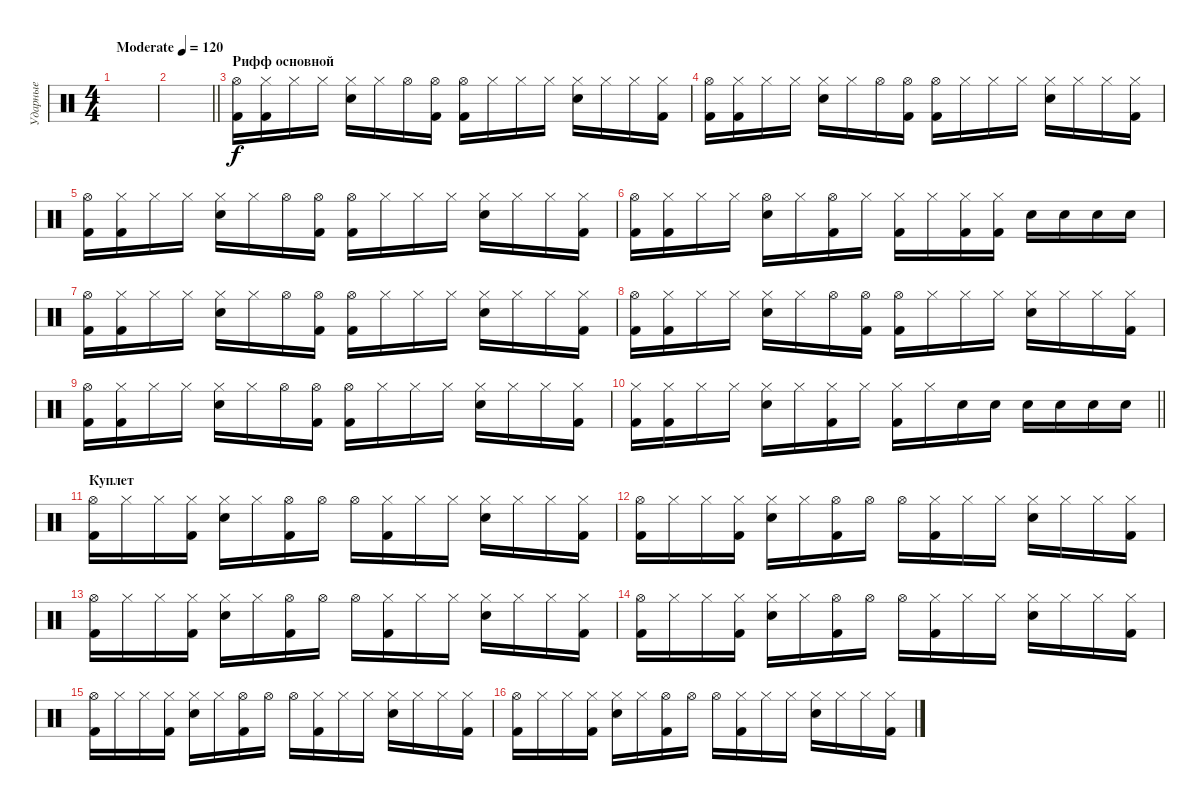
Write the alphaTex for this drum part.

\track ("Ударные" "Ударные") {instrument percussion}
\staff {score}
\articulation defaults
\ts (4 4)
\tempo (120 "Moderate")
\clef neutral
\ks c
|
\barLineRight lightlight
|
\section ("" "Рифф основной")
("Kick (hit) 2" "Hi-Hat (open)").16 ("Kick (hit) 2" "Hi-Hat (closed)").16 "Hi-Hat (closed)".16 "Hi-Hat (closed)".16 ("Electric Snare (hit)" "Hi-Hat (closed)").16 "Hi-Hat (closed)".16 "Hi-Hat (open)".16 ("Kick (hit) 2" "Hi-Hat (open)").16 ("Kick (hit) 2" "Hi-Hat (open)").16 "Hi-Hat (closed)".16 "Hi-Hat (closed)".16 "Hi-Hat (closed)".16 ("Electric Snare (hit)" "Hi-Hat (closed)").16 "Hi-Hat (closed)".16 "Hi-Hat (closed)".16 ("Kick (hit) 2" "Hi-Hat (closed)").16 |
("Kick (hit) 2" "Hi-Hat (open)").16 ("Kick (hit) 2" "Hi-Hat (closed)").16 "Hi-Hat (closed)".16 "Hi-Hat (closed)".16 ("Electric Snare (hit)" "Hi-Hat (closed)").16 "Hi-Hat (closed)".16 "Hi-Hat (open)".16 ("Kick (hit) 2" "Hi-Hat (open)").16 ("Kick (hit) 2" "Hi-Hat (open)").16 "Hi-Hat (closed)".16 "Hi-Hat (closed)".16 "Hi-Hat (closed)".16 ("Electric Snare (hit)" "Hi-Hat (closed)").16 "Hi-Hat (closed)".16 "Hi-Hat (closed)".16 ("Kick (hit) 2" "Hi-Hat (closed)").16 |
("Kick (hit) 2" "Hi-Hat (open)").16 ("Kick (hit) 2" "Hi-Hat (closed)").16 "Hi-Hat (closed)".16 "Hi-Hat (closed)".16 ("Electric Snare (hit)" "Hi-Hat (closed)").16 "Hi-Hat (closed)".16 "Hi-Hat (open)".16 ("Kick (hit) 2" "Hi-Hat (open)").16 ("Kick (hit) 2" "Hi-Hat (open)").16 "Hi-Hat (closed)".16 "Hi-Hat (closed)".16 "Hi-Hat (closed)".16 ("Electric Snare (hit)" "Hi-Hat (closed)").16 "Hi-Hat (closed)".16 "Hi-Hat (closed)".16 ("Kick (hit) 2" "Hi-Hat (closed)").16 |
("Kick (hit) 2" "Hi-Hat (open)").16 ("Kick (hit) 2" "Hi-Hat (closed)").16 "Hi-Hat (closed)".16 "Hi-Hat (closed)".16 ("Electric Snare (hit)" "Hi-Hat (open)").16 "Hi-Hat (closed)".16 ("Kick (hit) 2" "Hi-Hat (open)").16 "Hi-Hat (closed)".16 ("Kick (hit) 2" "Hi-Hat (closed)").16 "Hi-Hat (closed)".16 ("Kick (hit) 2" "Hi-Hat (closed)").16 ("Kick (hit) 2" "Hi-Hat (closed)").16 "Electric Snare (hit)".16 "Electric Snare (hit)".16 "Electric Snare (hit)".16 "Electric Snare (hit)".16 |
("Kick (hit) 2" "Hi-Hat (open)").16 ("Kick (hit) 2" "Hi-Hat (closed)").16 "Hi-Hat (closed)".16 "Hi-Hat (closed)".16 ("Electric Snare (hit)" "Hi-Hat (closed)").16 "Hi-Hat (closed)".16 "Hi-Hat (open)".16 ("Kick (hit) 2" "Hi-Hat (open)").16 ("Kick (hit) 2" "Hi-Hat (open)").16 "Hi-Hat (closed)".16 "Hi-Hat (closed)".16 "Hi-Hat (closed)".16 ("Electric Snare (hit)" "Hi-Hat (closed)").16 "Hi-Hat (closed)".16 "Hi-Hat (closed)".16 ("Kick (hit) 2" "Hi-Hat (closed)").16 |
("Kick (hit) 2" "Hi-Hat (open)").16 ("Kick (hit) 2" "Hi-Hat (closed)").16 "Hi-Hat (closed)".16 "Hi-Hat (closed)".16 ("Electric Snare (hit)" "Hi-Hat (closed)").16 "Hi-Hat (closed)".16 "Hi-Hat (open)".16 ("Kick (hit) 2" "Hi-Hat (open)").16 ("Kick (hit) 2" "Hi-Hat (open)").16 "Hi-Hat (closed)".16 "Hi-Hat (closed)".16 "Hi-Hat (closed)".16 ("Electric Snare (hit)" "Hi-Hat (closed)").16 "Hi-Hat (closed)".16 "Hi-Hat (closed)".16 ("Kick (hit) 2" "Hi-Hat (closed)").16 |
("Kick (hit) 2" "Hi-Hat (open)").16 ("Kick (hit) 2" "Hi-Hat (closed)").16 "Hi-Hat (closed)".16 "Hi-Hat (closed)".16 ("Electric Snare (hit)" "Hi-Hat (closed)").16 "Hi-Hat (closed)".16 "Hi-Hat (open)".16 ("Kick (hit) 2" "Hi-Hat (open)").16 ("Kick (hit) 2" "Hi-Hat (open)").16 "Hi-Hat (closed)".16 "Hi-Hat (closed)".16 "Hi-Hat (closed)".16 ("Electric Snare (hit)" "Hi-Hat (closed)").16 "Hi-Hat (closed)".16 "Hi-Hat (closed)".16 ("Kick (hit) 2" "Hi-Hat (closed)").16 |
\barLineRight lightlight
("Kick (hit) 2" "Hi-Hat (closed)").16 ("Kick (hit) 2" "Hi-Hat (closed)").16 "Hi-Hat (closed)".16 "Hi-Hat (closed)".16 ("Electric Snare (hit)" "Hi-Hat (closed)").16 "Hi-Hat (closed)".16 ("Kick (hit) 2" "Hi-Hat (closed)").16 "Hi-Hat (closed)".16 ("Kick (hit) 2" "Hi-Hat (closed)").16 "Hi-Hat (closed)".16 "Electric Snare (hit)".16 "Electric Snare (hit)".16 "Electric Snare (hit)".16 "Electric Snare (hit)".16 "Electric Snare (hit)".16 "Electric Snare (hit)".16 |
\section ("" "Куплет")
("Kick (hit) 2" "Hi-Hat (open)").16 "Hi-Hat (closed)".16 "Hi-Hat (closed)".16 ("Kick (hit) 2" "Hi-Hat (closed)").16 ("Electric Snare (hit)" "Hi-Hat (closed)").16 "Hi-Hat (closed)".16 ("Kick (hit) 2" "Hi-Hat (open)").16 "Hi-Hat (open)".16 "Hi-Hat (open)".16 ("Kick (hit) 2" "Hi-Hat (closed)").16 "Hi-Hat (closed)".16 "Hi-Hat (closed)".16 ("Electric Snare (hit)" "Hi-Hat (closed)").16 "Hi-Hat (closed)".16 "Hi-Hat (closed)".16 ("Kick (hit) 2" "Hi-Hat (closed)").16 |
("Kick (hit) 2" "Hi-Hat (open)").16 "Hi-Hat (closed)".16 "Hi-Hat (closed)".16 ("Kick (hit) 2" "Hi-Hat (closed)").16 ("Electric Snare (hit)" "Hi-Hat (closed)").16 "Hi-Hat (closed)".16 ("Kick (hit) 2" "Hi-Hat (open)").16 "Hi-Hat (open)".16 "Hi-Hat (open)".16 ("Kick (hit) 2" "Hi-Hat (closed)").16 "Hi-Hat (closed)".16 "Hi-Hat (closed)".16 ("Electric Snare (hit)" "Hi-Hat (closed)").16 "Hi-Hat (closed)".16 "Hi-Hat (closed)".16 ("Kick (hit) 2" "Hi-Hat (closed)").16 |
("Kick (hit) 2" "Hi-Hat (open)").16 "Hi-Hat (closed)".16 "Hi-Hat (closed)".16 ("Kick (hit) 2" "Hi-Hat (closed)").16 ("Electric Snare (hit)" "Hi-Hat (closed)").16 "Hi-Hat (closed)".16 ("Kick (hit) 2" "Hi-Hat (open)").16 "Hi-Hat (open)".16 "Hi-Hat (open)".16 ("Kick (hit) 2" "Hi-Hat (closed)").16 "Hi-Hat (closed)".16 "Hi-Hat (closed)".16 ("Electric Snare (hit)" "Hi-Hat (closed)").16 "Hi-Hat (closed)".16 "Hi-Hat (closed)".16 ("Kick (hit) 2" "Hi-Hat (closed)").16 |
("Kick (hit) 2" "Hi-Hat (open)").16 "Hi-Hat (closed)".16 "Hi-Hat (closed)".16 ("Kick (hit) 2" "Hi-Hat (closed)").16 ("Electric Snare (hit)" "Hi-Hat (closed)").16 "Hi-Hat (closed)".16 ("Kick (hit) 2" "Hi-Hat (open)").16 "Hi-Hat (open)".16 "Hi-Hat (open)".16 ("Kick (hit) 2" "Hi-Hat (closed)").16 "Hi-Hat (closed)".16 "Hi-Hat (closed)".16 ("Electric Snare (hit)" "Hi-Hat (closed)").16 "Hi-Hat (closed)".16 "Hi-Hat (closed)".16 ("Kick (hit) 2" "Hi-Hat (closed)").16 |
("Kick (hit) 2" "Hi-Hat (open)").16 "Hi-Hat (closed)".16 "Hi-Hat (closed)".16 ("Kick (hit) 2" "Hi-Hat (closed)").16 ("Electric Snare (hit)" "Hi-Hat (closed)").16 "Hi-Hat (closed)".16 ("Kick (hit) 2" "Hi-Hat (open)").16 "Hi-Hat (open)".16 "Hi-Hat (open)".16 ("Kick (hit) 2" "Hi-Hat (closed)").16 "Hi-Hat (closed)".16 "Hi-Hat (closed)".16 ("Electric Snare (hit)" "Hi-Hat (closed)").16 "Hi-Hat (closed)".16 "Hi-Hat (closed)".16 ("Kick (hit) 2" "Hi-Hat (closed)").16 |
("Kick (hit) 2" "Hi-Hat (open)").16 "Hi-Hat (closed)".16 "Hi-Hat (closed)".16 ("Kick (hit) 2" "Hi-Hat (closed)").16 ("Electric Snare (hit)" "Hi-Hat (closed)").16 "Hi-Hat (closed)".16 ("Kick (hit) 2" "Hi-Hat (open)").16 "Hi-Hat (open)".16 "Hi-Hat (open)".16 ("Kick (hit) 2" "Hi-Hat (closed)").16 "Hi-Hat (closed)".16 "Hi-Hat (closed)".16 ("Electric Snare (hit)" "Hi-Hat (closed)").16 "Hi-Hat (closed)".16 "Hi-Hat (closed)".16 ("Kick (hit) 2" "Hi-Hat (closed)").16
